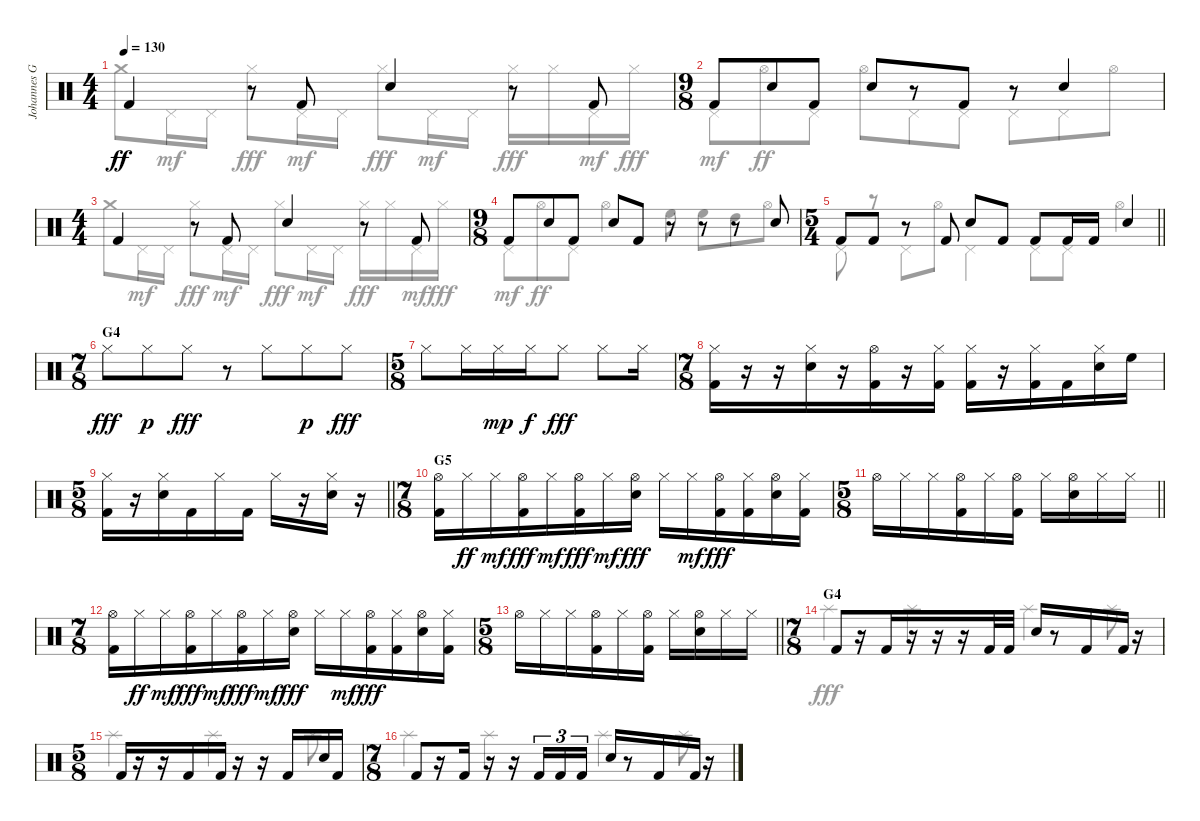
\track ("Johannes Grossmann" "Johannes G") {instrument percussion}
\staff {score}
\articulation defaults
\voice
\ts (4 4)
\tempo 130
\clef neutral
\ks c "Kick (hit) 2".4{dy ff}
r.8 "Kick (hit) 2".8 "Snare (hit) 2".4 r.8 "Kick (hit) 2".8 |
\ts (9 8)
"Kick (hit) 2".8 "Snare (hit) 2".8 "Kick (hit) 2".8 "Snare (hit) 2".8 r.8 "Kick (hit) 2".8 r.8 "Snare (hit) 2".4 |
\ts (4 4)
"Kick (hit) 2".4 r.8 "Kick (hit) 2".8 "Snare (hit) 2".4 r.8 "Kick (hit) 2".8 |
\ts (9 8)
"Kick (hit) 2".8 "Snare (hit) 2".8 "Kick (hit) 2".8 "Snare (hit) 2".8 "Kick (hit) 2".8 r.8 r.8 r.8 "Snare (hit) 2".8 |
\ts (5 4)
\barLineRight lightlight "Kick (hit) 2".8 "Kick (hit) 2".8
r.8 "Kick (hit) 2".8 "Snare (hit) 2".8 "Kick (hit) 2".8 "Kick (hit) 2".8 "Kick (hit) 2".16 "Kick (hit) 2".16 "Snare (hit) 2".4 |
\ts (7 8)
\section ("" "G4")
"Hi-Hat (closed)".8{dy fff} "Hi-Hat (closed)".8{dy p} "Hi-Hat (closed)".8{dy fff} r.8 "Hi-Hat (closed)".8 "Hi-Hat (closed)".8{dy p} "Hi-Hat (closed)".8{dy fff} |
\ts (5 8)
"Hi-Hat (closed)".8 "Hi-Hat (closed)".16 "Hi-Hat (closed)".16{dy mp} "Hi-Hat (closed)".16{dy f} "Hi-Hat (closed)".8{dy fff} "Hi-Hat (closed)".8 "Hi-Hat (closed)".16 |
\ts (7 8)
("Hi-Hat (closed)" "Kick (hit) 2").16 r.16 r.16 ("Hi-Hat (closed)" "Snare (hit) 2").16 r.16 ("Hi-Hat (open)" "Kick (hit) 2").16 r.16 ("Hi-Hat (closed)" "Kick (hit) 2").16 ("Hi-Hat (closed)" "Kick (hit) 2").16 r.16 ("Hi-Hat (closed)" "Kick (hit) 2").16 "Kick (hit) 2".16 ("Hi-Hat (closed)" "Snare (hit) 2").16 "High Floor Tom (hit)".16 |
\ts (5 8)
\barLineRight lightlight
("Hi-Hat (closed)" "Kick (hit) 2").16 r.16 ("Hi-Hat (closed)" "Snare (hit) 2").16 "Kick (hit) 2".16 "Hi-Hat (closed)".16 "Kick (hit) 2".16 "Hi-Hat (closed)".16 r.16 ("Hi-Hat (closed)" "Snare (hit) 2").16 r.16 |
\ts (7 8)
\section ("" "G5")
("Hi-Hat (open)" "Kick (hit) 2").16 "Hi-Hat (closed)".16{dy ff} "Hi-Hat (closed)".16{dy mf} ("Hi-Hat (open)" "Kick (hit) 2").16{dy fff} "Hi-Hat (closed)".16{dy mf} ("Hi-Hat (open)" "Kick (hit) 2").16{dy fff} "Hi-Hat (closed)".16{dy mf} ("Hi-Hat (open)" "Snare (hit) 2").16{dy fff} "Hi-Hat (closed)".16 "Hi-Hat (closed)".16{dy mf} ("Hi-Hat (open)" "Kick (hit) 2").16{dy fff} ("Hi-Hat (closed)" "Kick (hit) 2").16 ("Hi-Hat (open)" "Snare (hit) 2").16 ("Hi-Hat (closed)" "Kick (hit) 2").16 |
\ts (5 8)
\barLineRight lightlight "Hi-Hat (open)".16 "Hi-Hat (closed)".16 "Hi-Hat (closed)".16
("Hi-Hat (open)" "Kick (hit) 2").16 "Hi-Hat (closed)".16 ("Hi-Hat (open)" "Kick (hit) 2").16 "Hi-Hat (closed)".16 ("Hi-Hat (open)" "Snare (hit) 2").16 "Hi-Hat (closed)".16 "Hi-Hat (closed)".16 |
\ts (7 8)
("Hi-Hat (open)" "Kick (hit) 2").16 "Hi-Hat (closed)".16{dy ff} "Hi-Hat (closed)".16{dy mf} ("Hi-Hat (open)" "Kick (hit) 2").16{dy fff} "Hi-Hat (closed)".16{dy mf} ("Hi-Hat (open)" "Kick (hit) 2").16{dy fff} "Hi-Hat (closed)".16{dy mf} ("Hi-Hat (open)" "Snare (hit) 2").16{dy fff} "Hi-Hat (closed)".16 "Hi-Hat (closed)".16{dy mf} ("Hi-Hat (open)" "Kick (hit) 2").16{dy fff} ("Hi-Hat (closed)" "Kick (hit) 2").16 ("Hi-Hat (open)" "Snare (hit) 2").16 ("Hi-Hat (closed)" "Kick (hit) 2").16 |
\ts (5 8)
\barLineRight lightlight "Hi-Hat (open)".16 "Hi-Hat (closed)".16 "Hi-Hat (closed)".16
("Hi-Hat (open)" "Kick (hit) 2").16 "Hi-Hat (closed)".16 ("Hi-Hat (open)" "Kick (hit) 2").16 "Hi-Hat (closed)".16 ("Hi-Hat (open)" "Snare (hit) 2").16 "Hi-Hat (closed)".16 "Hi-Hat (closed)".16 |
\ts (7 8)
\section ("" "G4")
"Kick (hit) 2".8 r.16 "Kick (hit) 2".16 r.16 r.16 r.16 "Kick (hit) 2".32 "Kick (hit) 2".32 "Snare (hit) 2".16 r.8 "Kick (hit) 2".16 "Kick (hit) 2".16 r.16 |
\ts (5 8)
"Kick (hit) 2".16 r.16 r.16 "Kick (hit) 2".16 "Kick (hit) 2".16 r.16 r.16 "Kick (hit) 2".16 "Snare (hit) 2".16 "Kick (hit) 2".16 |
\ts (7 8)
"Kick (hit) 2".8 r.16 "Kick (hit) 2".16 r.16 r.16 "Kick (hit) 2".16{tu (3 2)} "Kick (hit) 2".16{tu (3 2)} "Kick (hit) 2".16{tu (3 2)} "Snare (hit) 2".16 r.8 "Kick (hit) 2".16 "Kick (hit) 2".16 r.16
\voice
\clef neutral
\ottava regular
\simile none
\ks c "Crash medium (hit)".8{dy ff} "Pedal Hi-Hat (hit)".16{dy mf} "Pedal Hi-Hat (hit)".16 "Hi-Hat (closed)".8{dy fff} "Pedal Hi-Hat (hit)".16{dy mf} "Pedal Hi-Hat (hit)".16 "Hi-Hat (closed)".8{dy fff} "Pedal Hi-Hat (hit)".16{dy mf} "Pedal Hi-Hat (hit)".16 "Hi-Hat (closed)".16{dy fff} "Hi-Hat (closed)".16 "Pedal Hi-Hat (hit)".16{dy mf} "Hi-Hat (closed)".16{dy fff}
|
"Pedal Hi-Hat (hit)".8{dy mf} "Hi-Hat (open)".8{dy ff} "Pedal Hi-Hat (hit)".8 "Hi-Hat (open)".8 "Pedal Hi-Hat (hit)".8 "Pedal Hi-Hat (hit)".8 "Pedal Hi-Hat (hit)".8 "Pedal Hi-Hat (hit)".8 "Hi-Hat (open)".8 |
"Crash medium (hit)".8 "Pedal Hi-Hat (hit)".16{dy mf} "Pedal Hi-Hat (hit)".16 "Hi-Hat (closed)".8{dy fff} "Pedal Hi-Hat (hit)".16{dy mf} "Pedal Hi-Hat (hit)".16 "Hi-Hat (closed)".8{dy fff} "Pedal Hi-Hat (hit)".16{dy mf} "Pedal Hi-Hat (hit)".16 "Hi-Hat (closed)".16{dy fff} "Hi-Hat (closed)".16 "Pedal Hi-Hat (hit)".16{dy mf} "Hi-Hat (closed)".16{dy fff} |
"Pedal Hi-Hat (hit)".8{dy mf} "Hi-Hat (open)".8{dy ff} "Pedal Hi-Hat (hit)".8 "Hi-Hat (open)".4 "High Floor Tom (hit)".8 "High Floor Tom (hit)".8 "High Tom (hit)".8 "Hi-Hat (open)".8 |
\barLineRight lightlight "Pedal Hi-Hat (hit)".8
r.8 "Pedal Hi-Hat (hit)".8 "Hi-Hat (open)".8 "Pedal Hi-Hat (hit)".4 "Pedal Hi-Hat (hit)".8 "Pedal Hi-Hat (hit)".8 "Hi-Hat (open)".4 |
|
|
|
\barLineRight lightlight
|
|
\barLineRight lightlight
|
|
\barLineRight lightlight
|
"Splash (hit)".4{dy fff} "Splash (hit)".4 "Splash (hit)".4 "Splash (hit)".8 |
"Splash (hit)".4 "Splash (hit)".4 "Splash (hit)".8 |
"Splash (hit)".4 "Splash (hit)".4 "Splash (hit)".4 "Splash (hit)".8
